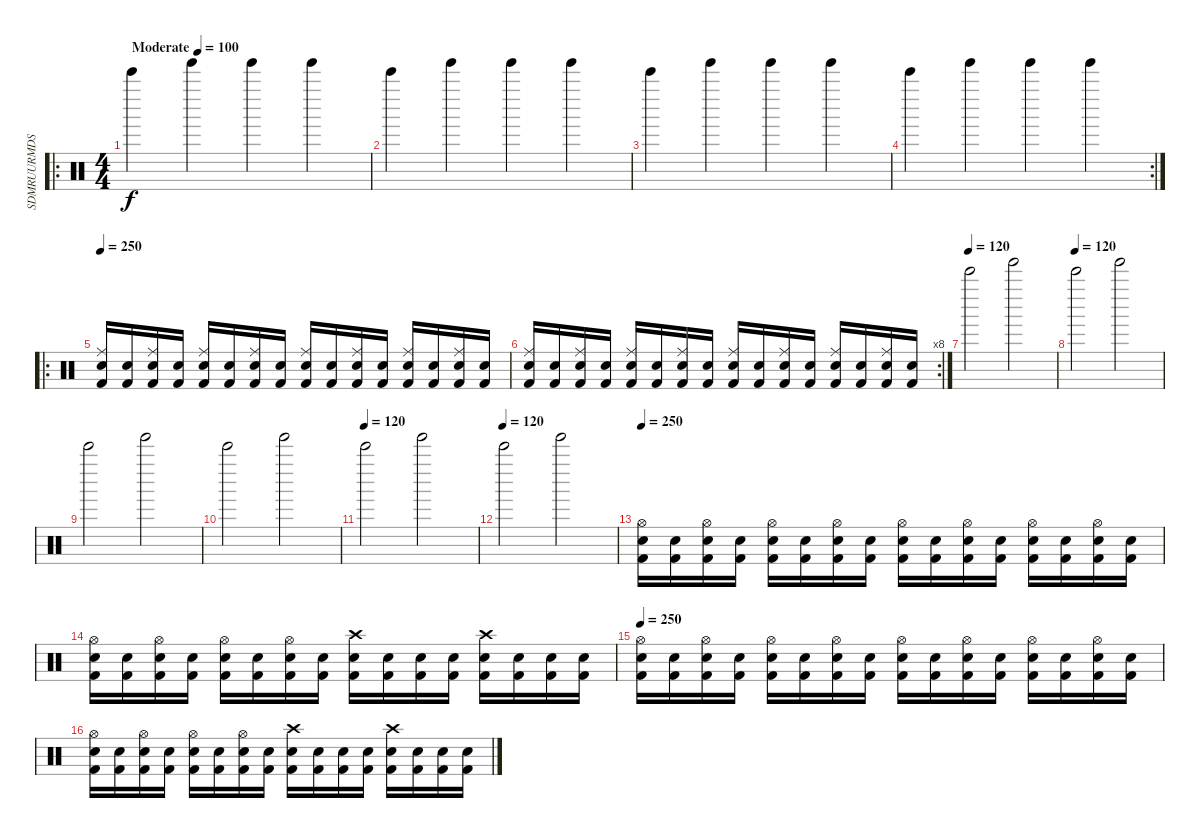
\track ("SDMRUURMDS" "SDMRUURMDS") {instrument percussion}
\staff {score}
\articulation defaults
\ro
\ts (4 4)
\tempo (100 "Moderate")
\clef neutral
\ks c "Bell Tree (hit)".4{dy f} "Tinkle Bell (hit)".4 "Tinkle Bell (hit)".4 "Tinkle Bell (hit)".4
|
"Bell Tree (hit)".4 "Tinkle Bell (hit)".4 "Tinkle Bell (hit)".4 "Tinkle Bell (hit)".4 |
"Bell Tree (hit)".4 "Tinkle Bell (hit)".4 "Tinkle Bell (hit)".4 "Tinkle Bell (hit)".4 |
\rc 2 "Bell Tree (hit)".4 "Tinkle Bell (hit)".4 "Tinkle Bell (hit)".4 "Tinkle Bell (hit)".4
|
\ro
\tempo 250
("Snare (hit) 2" "Ride (middle)" "Kick (hit) 2").16 ("Snare (hit) 2" "Kick (hit) 2").16 ("Snare (hit) 2" "Ride (middle)" "Kick (hit) 2").16 ("Snare (hit) 2" "Kick (hit) 2").16 ("Snare (hit) 2" "Ride (middle)" "Kick (hit) 2").16 ("Snare (hit) 2" "Kick (hit) 2").16 ("Snare (hit) 2" "Ride (middle)" "Kick (hit) 2").16 ("Snare (hit) 2" "Kick (hit) 2").16 ("Snare (hit) 2" "Ride (middle)" "Kick (hit) 2").16 ("Snare (hit) 2" "Kick (hit) 2").16 ("Snare (hit) 2" "Ride (middle)" "Kick (hit) 2").16 ("Snare (hit) 2" "Kick (hit) 2").16 ("Snare (hit) 2" "Ride (middle)" "Kick (hit) 2").16 ("Snare (hit) 2" "Kick (hit) 2").16 ("Snare (hit) 2" "Ride (middle)" "Kick (hit) 2").16 ("Snare (hit) 2" "Kick (hit) 2").16 |
\rc 8
("Snare (hit) 2" "Ride (middle)" "Kick (hit) 2").16 ("Snare (hit) 2" "Kick (hit) 2").16 ("Snare (hit) 2" "Ride (middle)" "Kick (hit) 2").16 ("Snare (hit) 2" "Kick (hit) 2").16 ("Snare (hit) 2" "Ride (middle)" "Kick (hit) 2").16 ("Snare (hit) 2" "Kick (hit) 2").16 ("Snare (hit) 2" "Ride (middle)" "Kick (hit) 2").16 ("Snare (hit) 2" "Kick (hit) 2").16 ("Snare (hit) 2" "Ride (middle)" "Kick (hit) 2").16 ("Snare (hit) 2" "Kick (hit) 2").16 ("Snare (hit) 2" "Ride (middle)" "Kick (hit) 2").16 ("Snare (hit) 2" "Kick (hit) 2").16 ("Snare (hit) 2" "Ride (middle)" "Kick (hit) 2").16 ("Snare (hit) 2" "Kick (hit) 2").16 ("Snare (hit) 2" "Ride (middle)" "Kick (hit) 2").16 ("Snare (hit) 2" "Kick (hit) 2").16 |
\tempo (120)
"Bell Tree (hit)".2 "Tinkle Bell (hit)".2 |
\tempo (120)
"Bell Tree (hit)".2 "Tinkle Bell (hit)".2 |
"Bell Tree (hit)".2 "Tinkle Bell (hit)".2 |
"Bell Tree (hit)".2 "Tinkle Bell (hit)".2 |
\tempo (120)
"Bell Tree (hit)".2 "Tinkle Bell (hit)".2 |
\tempo (120)
"Bell Tree (hit)".2 "Tinkle Bell (hit)".2 |
\tempo 250
("Snare (hit) 2" "Hi-Hat (open)" "Kick (hit) 2").16 ("Snare (hit) 2" "Kick (hit) 2").16 ("Snare (hit) 2" "Hi-Hat (open)" "Kick (hit) 2").16 ("Snare (hit) 2" "Kick (hit) 2").16 ("Snare (hit) 2" "Hi-Hat (open)" "Kick (hit) 2").16 ("Snare (hit) 2" "Kick (hit) 2").16 ("Snare (hit) 2" "Hi-Hat (open)" "Kick (hit) 2").16 ("Snare (hit) 2" "Kick (hit) 2").16 ("Snare (hit) 2" "Hi-Hat (open)" "Kick (hit) 2").16 ("Snare (hit) 2" "Kick (hit) 2").16 ("Snare (hit) 2" "Hi-Hat (open)" "Kick (hit) 2").16 ("Snare (hit) 2" "Kick (hit) 2").16 ("Snare (hit) 2" "Hi-Hat (open)" "Kick (hit) 2").16 ("Snare (hit) 2" "Kick (hit) 2").16 ("Snare (hit) 2" "Hi-Hat (open)" "Kick (hit) 2").16 ("Snare (hit) 2" "Kick (hit) 2").16 |
("Snare (hit) 2" "Hi-Hat (open)" "Kick (hit) 2").16 ("Snare (hit) 2" "Kick (hit) 2").16 ("Snare (hit) 2" "Hi-Hat (open)" "Kick (hit) 2").16 ("Snare (hit) 2" "Kick (hit) 2").16 ("Snare (hit) 2" "Hi-Hat (open)" "Kick (hit) 2").16 ("Snare (hit) 2" "Kick (hit) 2").16 ("Snare (hit) 2" "Hi-Hat (open)" "Kick (hit) 2").16 ("Snare (hit) 2" "Kick (hit) 2").16 ("Snare (hit) 2" "Crash high (hit)" "Kick (hit) 2").16 ("Snare (hit) 2" "Kick (hit) 2").16 ("Snare (hit) 2" "Kick (hit) 2").16 ("Snare (hit) 2" "Kick (hit) 2").16 ("Snare (hit) 2" "Crash high (hit)" "Kick (hit) 2").16 ("Snare (hit) 2" "Kick (hit) 2").16 ("Snare (hit) 2" "Kick (hit) 2").16 ("Snare (hit) 2" "Kick (hit) 2").16 |
\tempo 250
("Snare (hit) 2" "Hi-Hat (open)" "Kick (hit) 2").16 ("Snare (hit) 2" "Kick (hit) 2").16 ("Snare (hit) 2" "Hi-Hat (open)" "Kick (hit) 2").16 ("Snare (hit) 2" "Kick (hit) 2").16 ("Snare (hit) 2" "Hi-Hat (open)" "Kick (hit) 2").16 ("Snare (hit) 2" "Kick (hit) 2").16 ("Snare (hit) 2" "Hi-Hat (open)" "Kick (hit) 2").16 ("Snare (hit) 2" "Kick (hit) 2").16 ("Snare (hit) 2" "Hi-Hat (open)" "Kick (hit) 2").16 ("Snare (hit) 2" "Kick (hit) 2").16 ("Snare (hit) 2" "Hi-Hat (open)" "Kick (hit) 2").16 ("Snare (hit) 2" "Kick (hit) 2").16 ("Snare (hit) 2" "Hi-Hat (open)" "Kick (hit) 2").16 ("Snare (hit) 2" "Kick (hit) 2").16 ("Snare (hit) 2" "Hi-Hat (open)" "Kick (hit) 2").16 ("Snare (hit) 2" "Kick (hit) 2").16 |
("Snare (hit) 2" "Hi-Hat (open)" "Kick (hit) 2").16 ("Snare (hit) 2" "Kick (hit) 2").16 ("Snare (hit) 2" "Hi-Hat (open)" "Kick (hit) 2").16 ("Snare (hit) 2" "Kick (hit) 2").16 ("Snare (hit) 2" "Hi-Hat (open)" "Kick (hit) 2").16 ("Snare (hit) 2" "Kick (hit) 2").16 ("Snare (hit) 2" "Hi-Hat (open)" "Kick (hit) 2").16 ("Snare (hit) 2" "Kick (hit) 2").16 ("Snare (hit) 2" "Crash high (hit)" "Kick (hit) 2").16 ("Snare (hit) 2" "Kick (hit) 2").16 ("Snare (hit) 2" "Kick (hit) 2").16 ("Snare (hit) 2" "Kick (hit) 2").16 ("Snare (hit) 2" "Crash high (hit)" "Kick (hit) 2").16 ("Snare (hit) 2" "Kick (hit) 2").16 ("Snare (hit) 2" "Kick (hit) 2").16 ("Snare (hit) 2" "Kick (hit) 2").16
